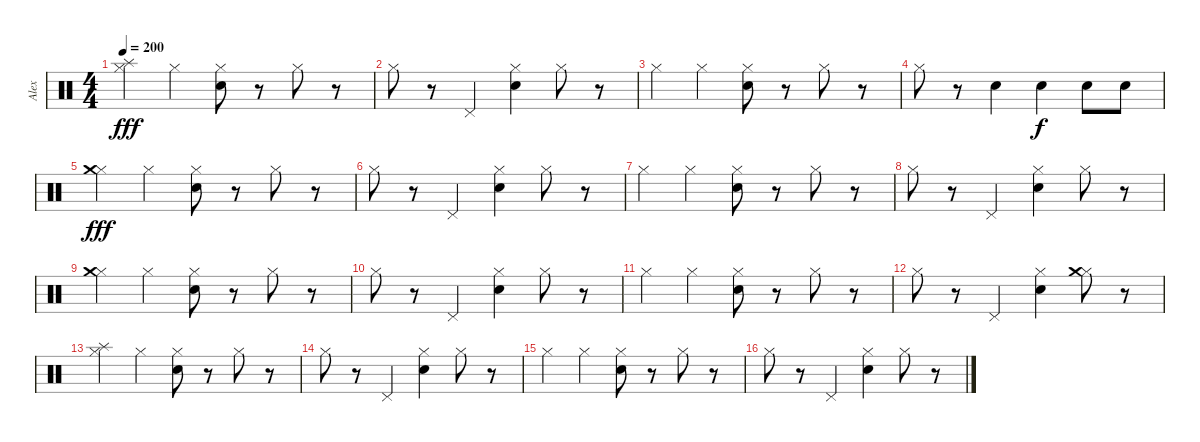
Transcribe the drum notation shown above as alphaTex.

\track ("Alex" "Alex") {instrument percussion}
\staff {score}
\articulation defaults
\ts (4 4)
\tempo 200
\clef neutral
\ks c
("Hi-Hat (closed)" "Splash (hit)").4{dy fff} "Hi-Hat (closed)".4 ("Electric Snare (hit)" "Hi-Hat (closed)").8 r.8 "Hi-Hat (closed)".8 r.8 |
"Hi-Hat (closed)".8 r.8 "Pedal Hi-Hat (hit)".4 ("Electric Snare (hit)" "Hi-Hat (closed)").4 "Hi-Hat (closed)".8 r.8 |
"Hi-Hat (closed)".4 "Hi-Hat (closed)".4 ("Electric Snare (hit)" "Hi-Hat (closed)").8 r.8 "Hi-Hat (closed)".8 r.8 |
"Hi-Hat (closed)".8 r.8 "Electric Snare (hit)".4 "Electric Snare (hit)".4{dy f} "Electric Snare (hit)".8 "Electric Snare (hit)".8 |
("Hi-Hat (closed)" "Crash medium (hit)").4{dy fff} "Hi-Hat (closed)".4 ("Electric Snare (hit)" "Hi-Hat (closed)").8 r.8 "Hi-Hat (closed)".8 r.8 |
"Hi-Hat (closed)".8 r.8 "Pedal Hi-Hat (hit)".4 ("Electric Snare (hit)" "Hi-Hat (closed)").4 "Hi-Hat (closed)".8 r.8 |
"Hi-Hat (closed)".4 "Hi-Hat (closed)".4 ("Electric Snare (hit)" "Hi-Hat (closed)").8 r.8 "Hi-Hat (closed)".8 r.8 |
"Hi-Hat (closed)".8 r.8 "Pedal Hi-Hat (hit)".4 ("Electric Snare (hit)" "Hi-Hat (closed)").4 "Hi-Hat (closed)".8 r.8 |
("Hi-Hat (closed)" "Crash medium (hit)").4 "Hi-Hat (closed)".4 ("Electric Snare (hit)" "Hi-Hat (closed)").8 r.8 "Hi-Hat (closed)".8 r.8 |
"Hi-Hat (closed)".8 r.8 "Pedal Hi-Hat (hit)".4 ("Electric Snare (hit)" "Hi-Hat (closed)").4 "Hi-Hat (closed)".8 r.8 |
"Hi-Hat (closed)".4 "Hi-Hat (closed)".4 ("Electric Snare (hit)" "Hi-Hat (closed)").8 r.8 "Hi-Hat (closed)".8 r.8 |
"Hi-Hat (closed)".8 r.8 "Pedal Hi-Hat (hit)".4 ("Electric Snare (hit)" "Hi-Hat (closed)").4 ("Hi-Hat (closed)" "Crash medium (hit)").8 r.8 |
("Hi-Hat (closed)" "Splash (hit)").4 "Hi-Hat (closed)".4 ("Electric Snare (hit)" "Hi-Hat (closed)").8 r.8 "Hi-Hat (closed)".8 r.8 |
"Hi-Hat (closed)".8 r.8 "Pedal Hi-Hat (hit)".4 ("Electric Snare (hit)" "Hi-Hat (closed)").4 "Hi-Hat (closed)".8 r.8 |
"Hi-Hat (closed)".4 "Hi-Hat (closed)".4 ("Electric Snare (hit)" "Hi-Hat (closed)").8 r.8 "Hi-Hat (closed)".8 r.8 |
"Hi-Hat (closed)".8 r.8 "Pedal Hi-Hat (hit)".4 ("Electric Snare (hit)" "Hi-Hat (closed)").4 "Hi-Hat (closed)".8 r.8
